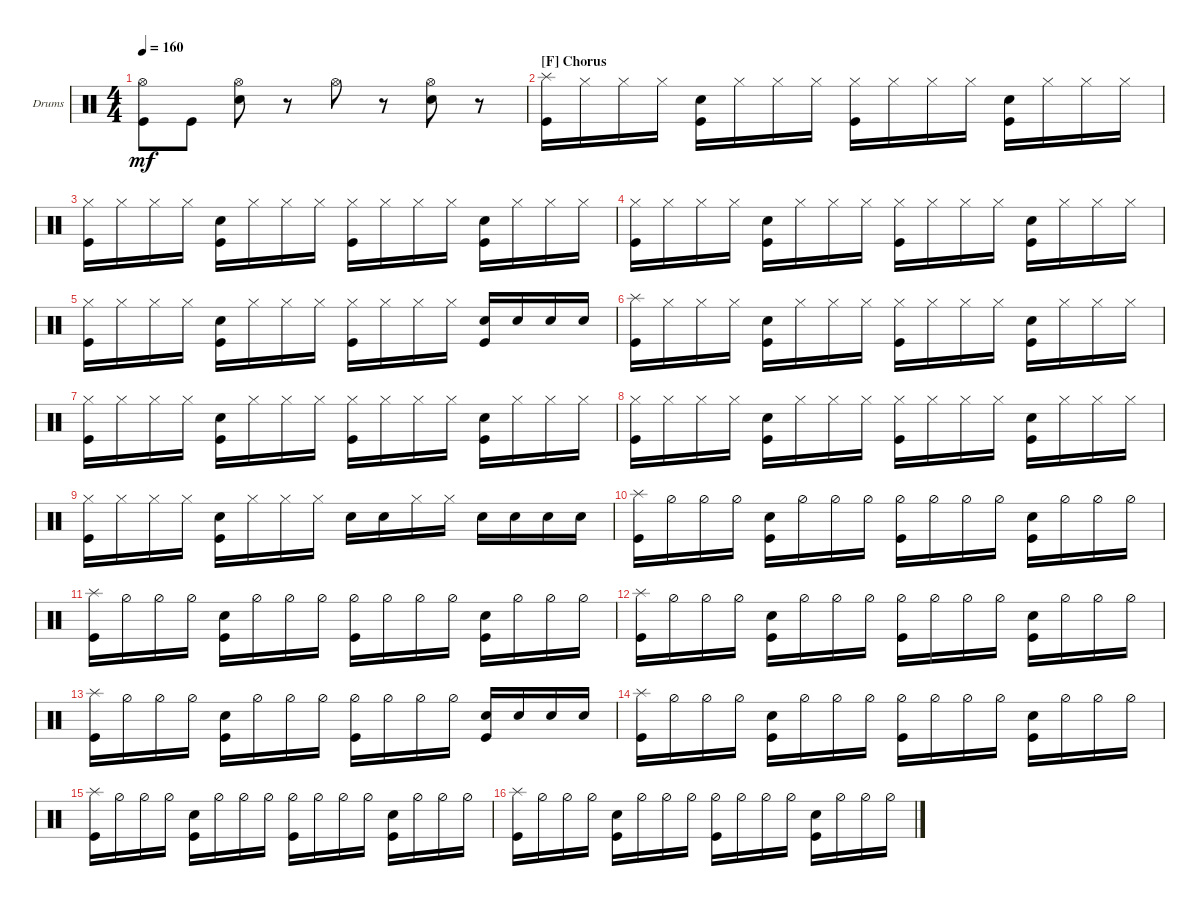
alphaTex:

\bracketExtendMode groupsimilarinstruments
\firstSystemTrackNameOrientation horizontal
\otherSystemsTrackNameOrientation horizontal
\track ("Drumkit" "Drums") {instrument percussion}
\staff {score}
\articulation defaults
\ts (4 4)
\tempo 160
\clef neutral
\ks c
("Kick (hit)" "Hi-Hat (open)").8{dy mf} "Kick (hit)".8 ("Snare (hit) 2" "Hi-Hat (open)").8 r.8 "Hi-Hat (open)".8 r.8 ("Hi-Hat (open)" "Snare (hit) 2").8 r.8 |
\section ("F" "Chorus")
("Kick (hit)" "Splash (hit)").16 "Hi-Hat (closed)".16 "Hi-Hat (closed)".16 "Hi-Hat (closed)".16 ("Snare (hit) 2" "Kick (hit)").16 "Hi-Hat (closed)".16 "Hi-Hat (closed)".16 "Hi-Hat (closed)".16 ("Kick (hit)" "Hi-Hat (closed)").16 "Hi-Hat (closed)".16 "Hi-Hat (closed)".16 "Hi-Hat (closed)".16 ("Snare (hit) 2" "Kick (hit)").16 "Hi-Hat (closed)".16 "Hi-Hat (closed)".16 "Hi-Hat (closed)".16 |
("Kick (hit)" "Hi-Hat (closed)").16 "Hi-Hat (closed)".16 "Hi-Hat (closed)".16 "Hi-Hat (closed)".16 ("Snare (hit) 2" "Kick (hit)").16 "Hi-Hat (closed)".16 "Hi-Hat (closed)".16 "Hi-Hat (closed)".16 ("Kick (hit)" "Hi-Hat (closed)").16 "Hi-Hat (closed)".16 "Hi-Hat (closed)".16 "Hi-Hat (closed)".16 ("Snare (hit) 2" "Kick (hit)").16 "Hi-Hat (closed)".16 "Hi-Hat (closed)".16 "Hi-Hat (closed)".16 |
("Kick (hit)" "Hi-Hat (closed)").16 "Hi-Hat (closed)".16 "Hi-Hat (closed)".16 "Hi-Hat (closed)".16 ("Snare (hit) 2" "Kick (hit)").16 "Hi-Hat (closed)".16 "Hi-Hat (closed)".16 "Hi-Hat (closed)".16 ("Kick (hit)" "Hi-Hat (closed)").16 "Hi-Hat (closed)".16 "Hi-Hat (closed)".16 "Hi-Hat (closed)".16 ("Snare (hit) 2" "Kick (hit)").16 "Hi-Hat (closed)".16 "Hi-Hat (closed)".16 "Hi-Hat (closed)".16 |
("Kick (hit)" "Hi-Hat (closed)").16 "Hi-Hat (closed)".16 "Hi-Hat (closed)".16 "Hi-Hat (closed)".16 ("Snare (hit) 2" "Kick (hit)").16 "Hi-Hat (closed)".16 "Hi-Hat (closed)".16 "Hi-Hat (closed)".16 ("Kick (hit)" "Hi-Hat (closed)").16 "Hi-Hat (closed)".16 "Hi-Hat (closed)".16 "Hi-Hat (closed)".16 ("Snare (hit) 2" "Kick (hit)").16 "Snare (hit) 2".16 "Snare (hit) 2".16 "Snare (hit) 2".16 |
("Kick (hit)" "Splash (hit)").16 "Hi-Hat (closed)".16 "Hi-Hat (closed)".16 "Hi-Hat (closed)".16 ("Snare (hit) 2" "Kick (hit)").16 "Hi-Hat (closed)".16 "Hi-Hat (closed)".16 "Hi-Hat (closed)".16 ("Kick (hit)" "Hi-Hat (closed)").16 "Hi-Hat (closed)".16 "Hi-Hat (closed)".16 "Hi-Hat (closed)".16 ("Snare (hit) 2" "Kick (hit)").16 "Hi-Hat (closed)".16 "Hi-Hat (closed)".16 "Hi-Hat (closed)".16 |
("Kick (hit)" "Hi-Hat (closed)").16 "Hi-Hat (closed)".16 "Hi-Hat (closed)".16 "Hi-Hat (closed)".16 ("Snare (hit) 2" "Kick (hit)").16 "Hi-Hat (closed)".16 "Hi-Hat (closed)".16 "Hi-Hat (closed)".16 ("Kick (hit)" "Hi-Hat (closed)").16 "Hi-Hat (closed)".16 "Hi-Hat (closed)".16 "Hi-Hat (closed)".16 ("Snare (hit) 2" "Kick (hit)").16 "Hi-Hat (closed)".16 "Hi-Hat (closed)".16 "Hi-Hat (closed)".16 |
("Kick (hit)" "Hi-Hat (closed)").16 "Hi-Hat (closed)".16 "Hi-Hat (closed)".16 "Hi-Hat (closed)".16 ("Snare (hit) 2" "Kick (hit)").16 "Hi-Hat (closed)".16 "Hi-Hat (closed)".16 "Hi-Hat (closed)".16 ("Kick (hit)" "Hi-Hat (closed)").16 "Hi-Hat (closed)".16 "Hi-Hat (closed)".16 "Hi-Hat (closed)".16 ("Snare (hit) 2" "Kick (hit)").16 "Hi-Hat (closed)".16 "Hi-Hat (closed)".16 "Hi-Hat (closed)".16 |
("Kick (hit)" "Hi-Hat (closed)").16 "Hi-Hat (closed)".16 "Hi-Hat (closed)".16 "Hi-Hat (closed)".16 ("Snare (hit) 2" "Kick (hit)").16 "Hi-Hat (closed)".16 "Hi-Hat (closed)".16 "Hi-Hat (closed)".16 "Snare (hit) 2".16 "Snare (hit) 2".16 "Hi-Hat (closed)".16 "Hi-Hat (closed)".16 "Snare (hit) 2".16 "Snare (hit) 2".16 "Snare (hit) 2".16 "Snare (hit) 2".16 |
("Kick (hit)" "Splash (hit)").16 "Hi-Hat (half)".16 "Hi-Hat (half)".16 "Hi-Hat (half)".16 ("Snare (hit) 2" "Kick (hit)").16 "Hi-Hat (half)".16 "Hi-Hat (half)".16 "Hi-Hat (half)".16 ("Kick (hit)" "Hi-Hat (half)").16 "Hi-Hat (half)".16 "Hi-Hat (half)".16 "Hi-Hat (half)".16 ("Snare (hit) 2" "Kick (hit)").16 "Hi-Hat (half)".16 "Hi-Hat (half)".16 "Hi-Hat (half)".16 |
("Kick (hit)" "Splash (hit)").16 "Hi-Hat (half)".16 "Hi-Hat (half)".16 "Hi-Hat (half)".16 ("Snare (hit) 2" "Kick (hit)").16 "Hi-Hat (half)".16 "Hi-Hat (half)".16 "Hi-Hat (half)".16 ("Kick (hit)" "Hi-Hat (half)").16 "Hi-Hat (half)".16 "Hi-Hat (half)".16 "Hi-Hat (half)".16 ("Snare (hit) 2" "Kick (hit)").16 "Hi-Hat (half)".16 "Hi-Hat (half)".16 "Hi-Hat (half)".16 |
("Kick (hit)" "Splash (hit)").16 "Hi-Hat (half)".16 "Hi-Hat (half)".16 "Hi-Hat (half)".16 ("Snare (hit) 2" "Kick (hit)").16 "Hi-Hat (half)".16 "Hi-Hat (half)".16 "Hi-Hat (half)".16 ("Kick (hit)" "Hi-Hat (half)").16 "Hi-Hat (half)".16 "Hi-Hat (half)".16 "Hi-Hat (half)".16 ("Snare (hit) 2" "Kick (hit)").16 "Hi-Hat (half)".16 "Hi-Hat (half)".16 "Hi-Hat (half)".16 |
("Kick (hit)" "Splash (hit)").16 "Hi-Hat (half)".16 "Hi-Hat (half)".16 "Hi-Hat (half)".16 ("Snare (hit) 2" "Kick (hit)").16 "Hi-Hat (half)".16 "Hi-Hat (half)".16 "Hi-Hat (half)".16 ("Kick (hit)" "Hi-Hat (half)").16 "Hi-Hat (half)".16 "Hi-Hat (half)".16 "Hi-Hat (half)".16 ("Snare (hit) 2" "Kick (hit)").16 "Snare (hit) 2".16 "Snare (hit) 2".16 "Snare (hit) 2".16 |
("Kick (hit)" "Splash (hit)").16 "Hi-Hat (half)".16 "Hi-Hat (half)".16 "Hi-Hat (half)".16 ("Snare (hit) 2" "Kick (hit)").16 "Hi-Hat (half)".16 "Hi-Hat (half)".16 "Hi-Hat (half)".16 ("Kick (hit)" "Hi-Hat (half)").16 "Hi-Hat (half)".16 "Hi-Hat (half)".16 "Hi-Hat (half)".16 ("Snare (hit) 2" "Kick (hit)").16 "Hi-Hat (half)".16 "Hi-Hat (half)".16 "Hi-Hat (half)".16 |
("Kick (hit)" "Splash (hit)").16 "Hi-Hat (half)".16 "Hi-Hat (half)".16 "Hi-Hat (half)".16 ("Snare (hit) 2" "Kick (hit)").16 "Hi-Hat (half)".16 "Hi-Hat (half)".16 "Hi-Hat (half)".16 ("Kick (hit)" "Hi-Hat (half)").16 "Hi-Hat (half)".16 "Hi-Hat (half)".16 "Hi-Hat (half)".16 ("Snare (hit) 2" "Kick (hit)").16 "Hi-Hat (half)".16 "Hi-Hat (half)".16 "Hi-Hat (half)".16 |
("Kick (hit)" "Splash (hit)").16 "Hi-Hat (half)".16 "Hi-Hat (half)".16 "Hi-Hat (half)".16 ("Snare (hit) 2" "Kick (hit)").16 "Hi-Hat (half)".16 "Hi-Hat (half)".16 "Hi-Hat (half)".16 ("Kick (hit)" "Hi-Hat (half)").16 "Hi-Hat (half)".16 "Hi-Hat (half)".16 "Hi-Hat (half)".16 ("Snare (hit) 2" "Kick (hit)").16 "Hi-Hat (half)".16 "Hi-Hat (half)".16 "Hi-Hat (half)".16
